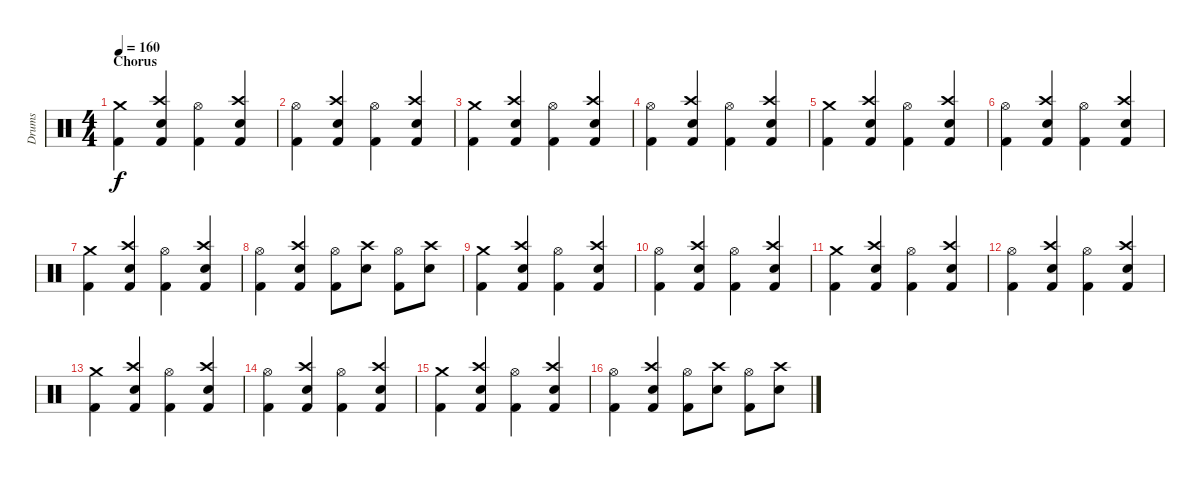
\track ("Drums" "Drums") {instrument percussion}
\staff {score}
\articulation defaults
\ts (4 4)
\section ("" "Chorus")
\tempo 160
\clef neutral
\ks c
("Crash medium (hit)" "Kick (hit) 2").4{dy f} ("Crash high (hit)" "Electric Snare (hit)" "Kick (hit) 2").4 ("Hi-Hat (open)" "Kick (hit) 2").4 ("Crash high (hit)" "Electric Snare (hit)" "Kick (hit) 2").4 |
("Hi-Hat (open)" "Kick (hit) 2").4 ("Crash high (hit)" "Electric Snare (hit)" "Kick (hit) 2").4 ("Hi-Hat (open)" "Kick (hit) 2").4 ("Crash high (hit)" "Electric Snare (hit)" "Kick (hit) 2").4 |
("Crash medium (hit)" "Kick (hit) 2").4 ("Crash high (hit)" "Electric Snare (hit)" "Kick (hit) 2").4 ("Hi-Hat (open)" "Kick (hit) 2").4 ("Crash high (hit)" "Electric Snare (hit)" "Kick (hit) 2").4 |
("Hi-Hat (open)" "Kick (hit) 2").4 ("Crash high (hit)" "Electric Snare (hit)" "Kick (hit) 2").4 ("Hi-Hat (open)" "Kick (hit) 2").4 ("Crash high (hit)" "Electric Snare (hit)" "Kick (hit) 2").4 |
("Crash medium (hit)" "Kick (hit) 2").4 ("Crash high (hit)" "Electric Snare (hit)" "Kick (hit) 2").4 ("Hi-Hat (open)" "Kick (hit) 2").4 ("Crash high (hit)" "Electric Snare (hit)" "Kick (hit) 2").4 |
("Hi-Hat (open)" "Kick (hit) 2").4 ("Crash high (hit)" "Electric Snare (hit)" "Kick (hit) 2").4 ("Hi-Hat (open)" "Kick (hit) 2").4 ("Crash high (hit)" "Electric Snare (hit)" "Kick (hit) 2").4 |
("Crash medium (hit)" "Kick (hit) 2").4 ("Crash high (hit)" "Electric Snare (hit)" "Kick (hit) 2").4 ("Hi-Hat (open)" "Kick (hit) 2").4 ("Crash high (hit)" "Electric Snare (hit)" "Kick (hit) 2").4 |
("Hi-Hat (open)" "Kick (hit) 2").4 ("Crash high (hit)" "Electric Snare (hit)" "Kick (hit) 2").4 ("Hi-Hat (open)" "Kick (hit) 2").8 ("Crash high (hit)" "Electric Snare (hit)").8 ("Hi-Hat (open)" "Kick (hit) 2").8 ("Crash high (hit)" "Electric Snare (hit)").8 |
("Crash medium (hit)" "Kick (hit) 2").4 ("Crash high (hit)" "Electric Snare (hit)" "Kick (hit) 2").4 ("Hi-Hat (open)" "Kick (hit) 2").4 ("Crash high (hit)" "Electric Snare (hit)" "Kick (hit) 2").4 |
("Hi-Hat (open)" "Kick (hit) 2").4 ("Crash high (hit)" "Electric Snare (hit)" "Kick (hit) 2").4 ("Hi-Hat (open)" "Kick (hit) 2").4 ("Crash high (hit)" "Electric Snare (hit)" "Kick (hit) 2").4 |
("Crash medium (hit)" "Kick (hit) 2").4 ("Crash high (hit)" "Electric Snare (hit)" "Kick (hit) 2").4 ("Hi-Hat (open)" "Kick (hit) 2").4 ("Crash high (hit)" "Electric Snare (hit)" "Kick (hit) 2").4 |
("Hi-Hat (open)" "Kick (hit) 2").4 ("Crash high (hit)" "Electric Snare (hit)" "Kick (hit) 2").4 ("Hi-Hat (open)" "Kick (hit) 2").4 ("Crash high (hit)" "Electric Snare (hit)" "Kick (hit) 2").4 |
("Crash medium (hit)" "Kick (hit) 2").4 ("Crash high (hit)" "Electric Snare (hit)" "Kick (hit) 2").4 ("Hi-Hat (open)" "Kick (hit) 2").4 ("Crash high (hit)" "Electric Snare (hit)" "Kick (hit) 2").4 |
("Hi-Hat (open)" "Kick (hit) 2").4 ("Crash high (hit)" "Electric Snare (hit)" "Kick (hit) 2").4 ("Hi-Hat (open)" "Kick (hit) 2").4 ("Crash high (hit)" "Electric Snare (hit)" "Kick (hit) 2").4 |
("Crash medium (hit)" "Kick (hit) 2").4 ("Crash high (hit)" "Electric Snare (hit)" "Kick (hit) 2").4 ("Hi-Hat (open)" "Kick (hit) 2").4 ("Crash high (hit)" "Electric Snare (hit)" "Kick (hit) 2").4 |
("Hi-Hat (open)" "Kick (hit) 2").4 ("Crash high (hit)" "Electric Snare (hit)" "Kick (hit) 2").4 ("Hi-Hat (open)" "Kick (hit) 2").8 ("Crash high (hit)" "Electric Snare (hit)").8 ("Hi-Hat (open)" "Kick (hit) 2").8 ("Crash high (hit)" "Electric Snare (hit)").8
